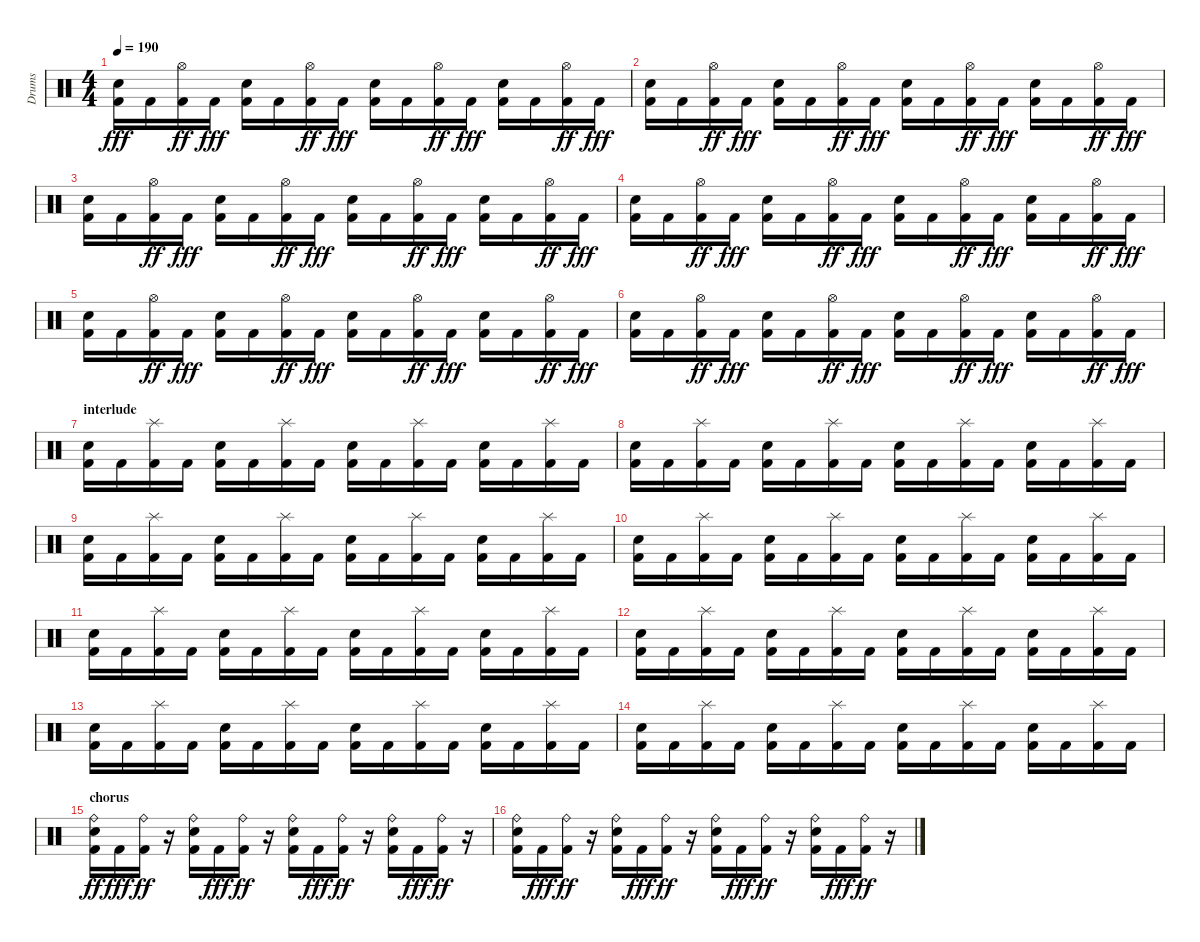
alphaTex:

\track ("Drums" "Drums") {instrument percussion}
\staff {score}
\articulation defaults
\ts (4 4)
\tempo 190
\clef neutral
\ks c
("Kick (hit) 2" "Electric Snare (hit)").16{dy fff} "Kick (hit) 2".16 ("Kick (hit) 2" "Hi-Hat (open)").16{dy ff} "Kick (hit) 2".16{dy fff} ("Kick (hit) 2" "Electric Snare (hit)").16 "Kick (hit) 2".16 ("Kick (hit) 2" "Hi-Hat (open)").16{dy ff} "Kick (hit) 2".16{dy fff} ("Kick (hit) 2" "Electric Snare (hit)").16 "Kick (hit) 2".16 ("Kick (hit) 2" "Hi-Hat (open)").16{dy ff} "Kick (hit) 2".16{dy fff} ("Kick (hit) 2" "Electric Snare (hit)").16 "Kick (hit) 2".16 ("Kick (hit) 2" "Hi-Hat (open)").16{dy ff} "Kick (hit) 2".16{dy fff} |
("Kick (hit) 2" "Electric Snare (hit)").16 "Kick (hit) 2".16 ("Kick (hit) 2" "Hi-Hat (open)").16{dy ff} "Kick (hit) 2".16{dy fff} ("Kick (hit) 2" "Electric Snare (hit)").16 "Kick (hit) 2".16 ("Kick (hit) 2" "Hi-Hat (open)").16{dy ff} "Kick (hit) 2".16{dy fff} ("Kick (hit) 2" "Electric Snare (hit)").16 "Kick (hit) 2".16 ("Kick (hit) 2" "Hi-Hat (open)").16{dy ff} "Kick (hit) 2".16{dy fff} ("Kick (hit) 2" "Electric Snare (hit)").16 "Kick (hit) 2".16 ("Kick (hit) 2" "Hi-Hat (open)").16{dy ff} "Kick (hit) 2".16{dy fff} |
("Kick (hit) 2" "Electric Snare (hit)").16 "Kick (hit) 2".16 ("Kick (hit) 2" "Hi-Hat (open)").16{dy ff} "Kick (hit) 2".16{dy fff} ("Kick (hit) 2" "Electric Snare (hit)").16 "Kick (hit) 2".16 ("Kick (hit) 2" "Hi-Hat (open)").16{dy ff} "Kick (hit) 2".16{dy fff} ("Kick (hit) 2" "Electric Snare (hit)").16 "Kick (hit) 2".16 ("Kick (hit) 2" "Hi-Hat (open)").16{dy ff} "Kick (hit) 2".16{dy fff} ("Kick (hit) 2" "Electric Snare (hit)").16 "Kick (hit) 2".16 ("Kick (hit) 2" "Hi-Hat (open)").16{dy ff} "Kick (hit) 2".16{dy fff} |
("Kick (hit) 2" "Electric Snare (hit)").16 "Kick (hit) 2".16 ("Kick (hit) 2" "Hi-Hat (open)").16{dy ff} "Kick (hit) 2".16{dy fff} ("Kick (hit) 2" "Electric Snare (hit)").16 "Kick (hit) 2".16 ("Kick (hit) 2" "Hi-Hat (open)").16{dy ff} "Kick (hit) 2".16{dy fff} ("Kick (hit) 2" "Electric Snare (hit)").16 "Kick (hit) 2".16 ("Kick (hit) 2" "Hi-Hat (open)").16{dy ff} "Kick (hit) 2".16{dy fff} ("Kick (hit) 2" "Electric Snare (hit)").16 "Kick (hit) 2".16 ("Kick (hit) 2" "Hi-Hat (open)").16{dy ff} "Kick (hit) 2".16{dy fff} |
("Kick (hit) 2" "Electric Snare (hit)").16 "Kick (hit) 2".16 ("Kick (hit) 2" "Hi-Hat (open)").16{dy ff} "Kick (hit) 2".16{dy fff} ("Kick (hit) 2" "Electric Snare (hit)").16 "Kick (hit) 2".16 ("Kick (hit) 2" "Hi-Hat (open)").16{dy ff} "Kick (hit) 2".16{dy fff} ("Kick (hit) 2" "Electric Snare (hit)").16 "Kick (hit) 2".16 ("Kick (hit) 2" "Hi-Hat (open)").16{dy ff} "Kick (hit) 2".16{dy fff} ("Kick (hit) 2" "Electric Snare (hit)").16 "Kick (hit) 2".16 ("Kick (hit) 2" "Hi-Hat (open)").16{dy ff} "Kick (hit) 2".16{dy fff} |
("Kick (hit) 2" "Electric Snare (hit)").16 "Kick (hit) 2".16 ("Kick (hit) 2" "Hi-Hat (open)").16{dy ff} "Kick (hit) 2".16{dy fff} ("Kick (hit) 2" "Electric Snare (hit)").16 "Kick (hit) 2".16 ("Kick (hit) 2" "Hi-Hat (open)").16{dy ff} "Kick (hit) 2".16{dy fff} ("Kick (hit) 2" "Electric Snare (hit)").16 "Kick (hit) 2".16 ("Kick (hit) 2" "Hi-Hat (open)").16{dy ff} "Kick (hit) 2".16{dy fff} ("Kick (hit) 2" "Electric Snare (hit)").16 "Kick (hit) 2".16 ("Kick (hit) 2" "Hi-Hat (open)").16{dy ff} "Kick (hit) 2".16{dy fff} |
\section ("" "interlude")
("Snare (hit) 2" "Kick (hit) 2").16 "Kick (hit) 2".16 ("Splash (hit)" "Kick (hit) 2").16 "Kick (hit) 2".16 ("Snare (hit) 2" "Kick (hit) 2").16 "Kick (hit) 2".16 ("Splash (hit)" "Kick (hit) 2").16 "Kick (hit) 2".16 ("Snare (hit) 2" "Kick (hit) 2").16 "Kick (hit) 2".16 ("Splash (hit)" "Kick (hit) 2").16 "Kick (hit) 2".16 ("Snare (hit) 2" "Kick (hit) 2").16 "Kick (hit) 2".16 ("Splash (hit)" "Kick (hit) 2").16 "Kick (hit) 2".16 |
("Snare (hit) 2" "Kick (hit) 2").16 "Kick (hit) 2".16 ("Splash (hit)" "Kick (hit) 2").16 "Kick (hit) 2".16 ("Snare (hit) 2" "Kick (hit) 2").16 "Kick (hit) 2".16 ("Splash (hit)" "Kick (hit) 2").16 "Kick (hit) 2".16 ("Snare (hit) 2" "Kick (hit) 2").16 "Kick (hit) 2".16 ("Splash (hit)" "Kick (hit) 2").16 "Kick (hit) 2".16 ("Snare (hit) 2" "Kick (hit) 2").16 "Kick (hit) 2".16 ("Splash (hit)" "Kick (hit) 2").16 "Kick (hit) 2".16 |
("Snare (hit) 2" "Kick (hit) 2").16 "Kick (hit) 2".16 ("Splash (hit)" "Kick (hit) 2").16 "Kick (hit) 2".16 ("Snare (hit) 2" "Kick (hit) 2").16 "Kick (hit) 2".16 ("Splash (hit)" "Kick (hit) 2").16 "Kick (hit) 2".16 ("Snare (hit) 2" "Kick (hit) 2").16 "Kick (hit) 2".16 ("Splash (hit)" "Kick (hit) 2").16 "Kick (hit) 2".16 ("Snare (hit) 2" "Kick (hit) 2").16 "Kick (hit) 2".16 ("Splash (hit)" "Kick (hit) 2").16 "Kick (hit) 2".16 |
("Snare (hit) 2" "Kick (hit) 2").16 "Kick (hit) 2".16 ("Splash (hit)" "Kick (hit) 2").16 "Kick (hit) 2".16 ("Snare (hit) 2" "Kick (hit) 2").16 "Kick (hit) 2".16 ("Splash (hit)" "Kick (hit) 2").16 "Kick (hit) 2".16 ("Snare (hit) 2" "Kick (hit) 2").16 "Kick (hit) 2".16 ("Splash (hit)" "Kick (hit) 2").16 "Kick (hit) 2".16 ("Snare (hit) 2" "Kick (hit) 2").16 "Kick (hit) 2".16 ("Splash (hit)" "Kick (hit) 2").16 "Kick (hit) 2".16 |
("Snare (hit) 2" "Kick (hit) 2").16 "Kick (hit) 2".16 ("Splash (hit)" "Kick (hit) 2").16 "Kick (hit) 2".16 ("Snare (hit) 2" "Kick (hit) 2").16 "Kick (hit) 2".16 ("Splash (hit)" "Kick (hit) 2").16 "Kick (hit) 2".16 ("Snare (hit) 2" "Kick (hit) 2").16 "Kick (hit) 2".16 ("Splash (hit)" "Kick (hit) 2").16 "Kick (hit) 2".16 ("Snare (hit) 2" "Kick (hit) 2").16 "Kick (hit) 2".16 ("Splash (hit)" "Kick (hit) 2").16 "Kick (hit) 2".16 |
("Snare (hit) 2" "Kick (hit) 2").16 "Kick (hit) 2".16 ("Splash (hit)" "Kick (hit) 2").16 "Kick (hit) 2".16 ("Snare (hit) 2" "Kick (hit) 2").16 "Kick (hit) 2".16 ("Splash (hit)" "Kick (hit) 2").16 "Kick (hit) 2".16 ("Snare (hit) 2" "Kick (hit) 2").16 "Kick (hit) 2".16 ("Splash (hit)" "Kick (hit) 2").16 "Kick (hit) 2".16 ("Snare (hit) 2" "Kick (hit) 2").16 "Kick (hit) 2".16 ("Splash (hit)" "Kick (hit) 2").16 "Kick (hit) 2".16 |
("Snare (hit) 2" "Kick (hit) 2").16 "Kick (hit) 2".16 ("Splash (hit)" "Kick (hit) 2").16 "Kick (hit) 2".16 ("Snare (hit) 2" "Kick (hit) 2").16 "Kick (hit) 2".16 ("Splash (hit)" "Kick (hit) 2").16 "Kick (hit) 2".16 ("Snare (hit) 2" "Kick (hit) 2").16 "Kick (hit) 2".16 ("Splash (hit)" "Kick (hit) 2").16 "Kick (hit) 2".16 ("Snare (hit) 2" "Kick (hit) 2").16 "Kick (hit) 2".16 ("Splash (hit)" "Kick (hit) 2").16 "Kick (hit) 2".16 |
("Snare (hit) 2" "Kick (hit) 2").16 "Kick (hit) 2".16 ("Splash (hit)" "Kick (hit) 2").16 "Kick (hit) 2".16 ("Snare (hit) 2" "Kick (hit) 2").16 "Kick (hit) 2".16 ("Splash (hit)" "Kick (hit) 2").16 "Kick (hit) 2".16 ("Snare (hit) 2" "Kick (hit) 2").16 "Kick (hit) 2".16 ("Splash (hit)" "Kick (hit) 2").16 "Kick (hit) 2".16 ("Snare (hit) 2" "Kick (hit) 2").16 "Kick (hit) 2".16 ("Splash (hit)" "Kick (hit) 2").16 "Kick (hit) 2".16 |
\section ("" "chorus")
("Kick (hit) 2" "Ride (bell)" "Electric Snare (hit)").16{dy ff} "Kick (hit) 2".16{dy fff} ("Kick (hit) 2" "Ride (bell)").16{dy ff} r.16 ("Kick (hit) 2" "Ride (bell)" "Electric Snare (hit)").16 "Kick (hit) 2".16{dy fff} ("Kick (hit) 2" "Ride (bell)").16{dy ff} r.16 ("Kick (hit) 2" "Ride (bell)" "Electric Snare (hit)").16 "Kick (hit) 2".16{dy fff} ("Kick (hit) 2" "Ride (bell)").16{dy ff} r.16 ("Kick (hit) 2" "Ride (bell)" "Electric Snare (hit)").16 "Kick (hit) 2".16{dy fff} ("Kick (hit) 2" "Ride (bell)").16{dy ff} r.16 |
("Kick (hit) 2" "Ride (bell)" "Electric Snare (hit)").16 "Kick (hit) 2".16{dy fff} ("Kick (hit) 2" "Ride (bell)").16{dy ff} r.16 ("Kick (hit) 2" "Ride (bell)" "Electric Snare (hit)").16 "Kick (hit) 2".16{dy fff} ("Kick (hit) 2" "Ride (bell)").16{dy ff} r.16 ("Kick (hit) 2" "Ride (bell)" "Electric Snare (hit)").16 "Kick (hit) 2".16{dy fff} ("Kick (hit) 2" "Ride (bell)").16{dy ff} r.16 ("Kick (hit) 2" "Ride (bell)" "Electric Snare (hit)").16 "Kick (hit) 2".16{dy fff} ("Kick (hit) 2" "Ride (bell)").16{dy ff} r.16
